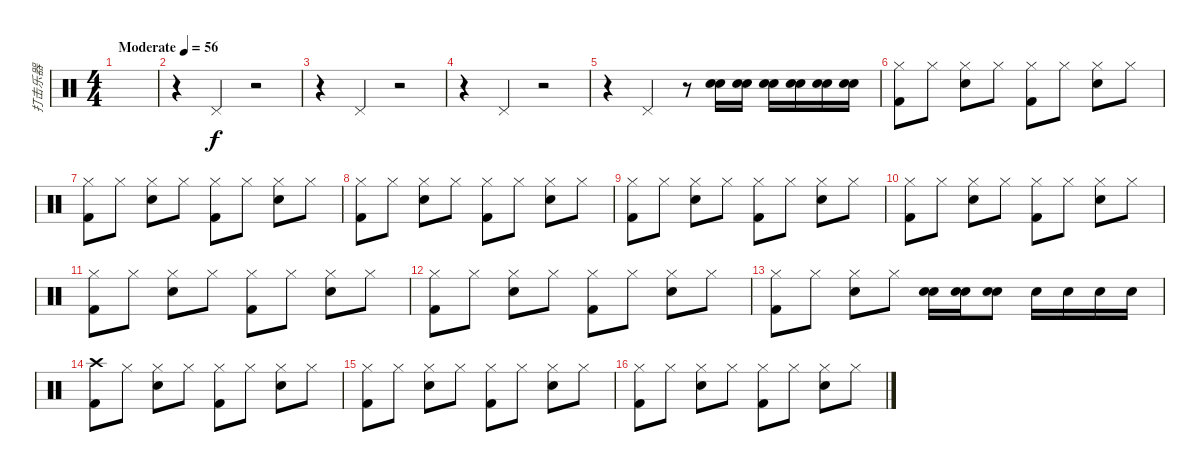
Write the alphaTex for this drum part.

\track ("打击乐器" "打击乐器") {instrument percussion}
\staff {score}
\articulation defaults
\ts (4 4)
\tempo (56 "Moderate")
\clef neutral
\ks c
|
r.4 "Pedal Hi-Hat (hit)".4 r.2 |
r.4 "Pedal Hi-Hat (hit)".4 r.2 |
r.4 "Pedal Hi-Hat (hit)".4 r.2 |
r.4 "Pedal Hi-Hat (hit)".4 r.8 ("Electric Snare (hit)" "Snare (hit) 2").16 ("Electric Snare (hit)" "Snare (hit) 2").16 ("Electric Snare (hit)" "Snare (hit) 2").16 ("Electric Snare (hit)" "Snare (hit) 2").16 ("Electric Snare (hit)" "Snare (hit) 2").16 ("Electric Snare (hit)" "Snare (hit) 2").16 |
("Hi-Hat (closed)" "Kick (hit) 2").8 "Hi-Hat (closed)".8 ("Hi-Hat (closed)" "Snare (hit) 2").8 "Hi-Hat (closed)".8 ("Hi-Hat (closed)" "Kick (hit) 2").8 "Hi-Hat (closed)".8 ("Hi-Hat (closed)" "Snare (hit) 2").8 "Hi-Hat (closed)".8 |
("Hi-Hat (closed)" "Kick (hit) 2").8 "Hi-Hat (closed)".8 ("Hi-Hat (closed)" "Snare (hit) 2").8 "Hi-Hat (closed)".8 ("Hi-Hat (closed)" "Kick (hit) 2").8 "Hi-Hat (closed)".8 ("Hi-Hat (closed)" "Snare (hit) 2").8 "Hi-Hat (closed)".8 |
("Hi-Hat (closed)" "Kick (hit) 2").8 "Hi-Hat (closed)".8 ("Hi-Hat (closed)" "Snare (hit) 2").8 "Hi-Hat (closed)".8 ("Hi-Hat (closed)" "Kick (hit) 2").8 "Hi-Hat (closed)".8 ("Hi-Hat (closed)" "Snare (hit) 2").8 "Hi-Hat (closed)".8 |
("Hi-Hat (closed)" "Kick (hit) 2").8 "Hi-Hat (closed)".8 ("Hi-Hat (closed)" "Snare (hit) 2").8 "Hi-Hat (closed)".8 ("Hi-Hat (closed)" "Kick (hit) 2").8 "Hi-Hat (closed)".8 ("Hi-Hat (closed)" "Snare (hit) 2").8 "Hi-Hat (closed)".8 |
("Hi-Hat (closed)" "Kick (hit) 2").8 "Hi-Hat (closed)".8 ("Hi-Hat (closed)" "Snare (hit) 2").8 "Hi-Hat (closed)".8 ("Hi-Hat (closed)" "Kick (hit) 2").8 "Hi-Hat (closed)".8 ("Hi-Hat (closed)" "Snare (hit) 2").8 "Hi-Hat (closed)".8 |
("Hi-Hat (closed)" "Kick (hit) 2").8 "Hi-Hat (closed)".8 ("Hi-Hat (closed)" "Snare (hit) 2").8 "Hi-Hat (closed)".8 ("Hi-Hat (closed)" "Kick (hit) 2").8 "Hi-Hat (closed)".8 ("Hi-Hat (closed)" "Snare (hit) 2").8 "Hi-Hat (closed)".8 |
("Hi-Hat (closed)" "Kick (hit) 2").8 "Hi-Hat (closed)".8 ("Hi-Hat (closed)" "Snare (hit) 2").8 "Hi-Hat (closed)".8 ("Hi-Hat (closed)" "Kick (hit) 2").8 "Hi-Hat (closed)".8 ("Hi-Hat (closed)" "Snare (hit) 2").8 "Hi-Hat (closed)".8 |
("Hi-Hat (closed)" "Kick (hit) 2").8 "Hi-Hat (closed)".8 ("Hi-Hat (closed)" "Snare (hit) 2").8 "Hi-Hat (closed)".8 ("Electric Snare (hit)" "Snare (hit) 2").16 ("Electric Snare (hit)" "Snare (hit) 2").16 ("Electric Snare (hit)" "Snare (hit) 2").8 "Snare (hit) 2".16 "Snare (hit) 2".16 "Snare (hit) 2".16 "Snare (hit) 2".16 |
("Crash high (hit)" "Kick (hit) 2").8 "Hi-Hat (closed)".8 ("Hi-Hat (closed)" "Snare (hit) 2").8 "Hi-Hat (closed)".8 ("Hi-Hat (closed)" "Kick (hit) 2").8 "Hi-Hat (closed)".8 ("Hi-Hat (closed)" "Snare (hit) 2").8 "Hi-Hat (closed)".8 |
("Hi-Hat (closed)" "Kick (hit) 2").8 "Hi-Hat (closed)".8 ("Hi-Hat (closed)" "Snare (hit) 2").8 "Hi-Hat (closed)".8 ("Hi-Hat (closed)" "Kick (hit) 2").8 "Hi-Hat (closed)".8 ("Hi-Hat (closed)" "Snare (hit) 2").8 "Hi-Hat (closed)".8 |
("Hi-Hat (closed)" "Kick (hit) 2").8 "Hi-Hat (closed)".8 ("Hi-Hat (closed)" "Snare (hit) 2").8 "Hi-Hat (closed)".8 ("Hi-Hat (closed)" "Kick (hit) 2").8 "Hi-Hat (closed)".8 ("Hi-Hat (closed)" "Snare (hit) 2").8 "Hi-Hat (closed)".8
